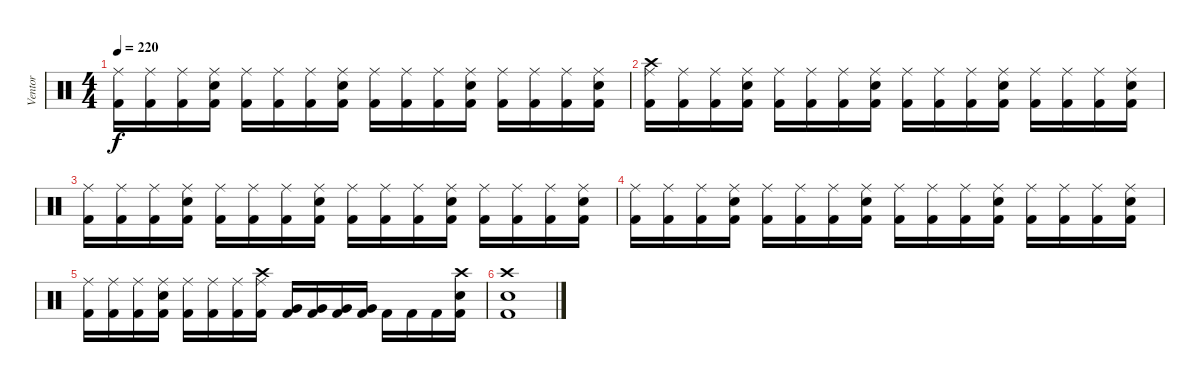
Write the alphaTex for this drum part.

\track ("Ventor" "Ventor") {instrument percussion}
\staff {score}
\articulation defaults
\ts (4 4)
\tempo 220
\clef neutral
\ks c
("Kick (hit) 2" "Ride (middle)").16{dy f} ("Kick (hit) 2" "Ride (middle)").16 ("Kick (hit) 2" "Ride (middle)").16 ("Snare (hit) 2" "Kick (hit) 2" "Ride (middle)").16 ("Kick (hit) 2" "Ride (middle)").16 ("Kick (hit) 2" "Ride (middle)").16 ("Kick (hit) 2" "Ride (middle)").16 ("Snare (hit) 2" "Kick (hit) 2" "Ride (middle)").16 ("Kick (hit) 2" "Ride (middle)").16 ("Kick (hit) 2" "Ride (middle)").16 ("Kick (hit) 2" "Ride (middle)").16 ("Snare (hit) 2" "Kick (hit) 2" "Ride (middle)").16 ("Kick (hit) 2" "Ride (middle)").16 ("Kick (hit) 2" "Ride (middle)").16 ("Kick (hit) 2" "Ride (middle)").16 ("Snare (hit) 2" "Kick (hit) 2" "Ride (middle)").16 |
("Crash high (hit)" "Kick (hit) 2" "Ride (middle)").16 ("Kick (hit) 2" "Ride (middle)").16 ("Kick (hit) 2" "Ride (middle)").16 ("Snare (hit) 2" "Kick (hit) 2" "Ride (middle)").16 ("Kick (hit) 2" "Ride (middle)").16 ("Kick (hit) 2" "Ride (middle)").16 ("Kick (hit) 2" "Ride (middle)").16 ("Snare (hit) 2" "Kick (hit) 2" "Ride (middle)").16 ("Kick (hit) 2" "Ride (middle)").16 ("Kick (hit) 2" "Ride (middle)").16 ("Kick (hit) 2" "Ride (middle)").16 ("Snare (hit) 2" "Kick (hit) 2" "Ride (middle)").16 ("Kick (hit) 2" "Ride (middle)").16 ("Kick (hit) 2" "Ride (middle)").16 ("Kick (hit) 2" "Ride (middle)").16 ("Snare (hit) 2" "Kick (hit) 2" "Ride (middle)").16 |
("Kick (hit) 2" "Ride (middle)").16 ("Kick (hit) 2" "Ride (middle)").16 ("Kick (hit) 2" "Ride (middle)").16 ("Snare (hit) 2" "Kick (hit) 2" "Ride (middle)").16 ("Kick (hit) 2" "Ride (middle)").16 ("Kick (hit) 2" "Ride (middle)").16 ("Kick (hit) 2" "Ride (middle)").16 ("Snare (hit) 2" "Kick (hit) 2" "Ride (middle)").16 ("Kick (hit) 2" "Ride (middle)").16 ("Kick (hit) 2" "Ride (middle)").16 ("Kick (hit) 2" "Ride (middle)").16 ("Snare (hit) 2" "Kick (hit) 2" "Ride (middle)").16 ("Kick (hit) 2" "Ride (middle)").16 ("Kick (hit) 2" "Ride (middle)").16 ("Kick (hit) 2" "Ride (middle)").16 ("Snare (hit) 2" "Kick (hit) 2" "Ride (middle)").16 |
("Kick (hit) 2" "Ride (middle)").16 ("Kick (hit) 2" "Ride (middle)").16 ("Kick (hit) 2" "Ride (middle)").16 ("Snare (hit) 2" "Kick (hit) 2" "Ride (middle)").16 ("Kick (hit) 2" "Ride (middle)").16 ("Kick (hit) 2" "Ride (middle)").16 ("Kick (hit) 2" "Ride (middle)").16 ("Snare (hit) 2" "Kick (hit) 2" "Ride (middle)").16 ("Kick (hit) 2" "Ride (middle)").16 ("Kick (hit) 2" "Ride (middle)").16 ("Kick (hit) 2" "Ride (middle)").16 ("Snare (hit) 2" "Kick (hit) 2" "Ride (middle)").16 ("Kick (hit) 2" "Ride (middle)").16 ("Kick (hit) 2" "Ride (middle)").16 ("Kick (hit) 2" "Ride (middle)").16 ("Snare (hit) 2" "Kick (hit) 2" "Ride (middle)").16 |
("Kick (hit) 2" "Ride (middle)").16 ("Kick (hit) 2" "Ride (middle)").16 ("Kick (hit) 2" "Ride (middle)").16 ("Snare (hit) 2" "Kick (hit) 2" "Ride (middle)").16 ("Kick (hit) 2" "Ride (middle)").16 ("Kick (hit) 2" "Ride (middle)").16 ("Kick (hit) 2" "Ride (middle)").16 ("Crash high (hit)" "Kick (hit) 2" "Ride (middle)").16 ("Kick (hit) 2" "Very Low Tom (hit)").16 ("Kick (hit) 2" "Very Low Tom (hit)").16 ("Kick (hit) 2" "Very Low Tom (hit)").16 ("Kick (hit) 2" "Very Low Tom (hit)").16 "Kick (hit) 2".16 "Kick (hit) 2".16 "Kick (hit) 2".16 ("Crash high (hit)" "Snare (hit) 2" "Kick (hit) 2").16 |
("Crash high (hit)" "Snare (hit) 2" "Kick (hit) 2").1
